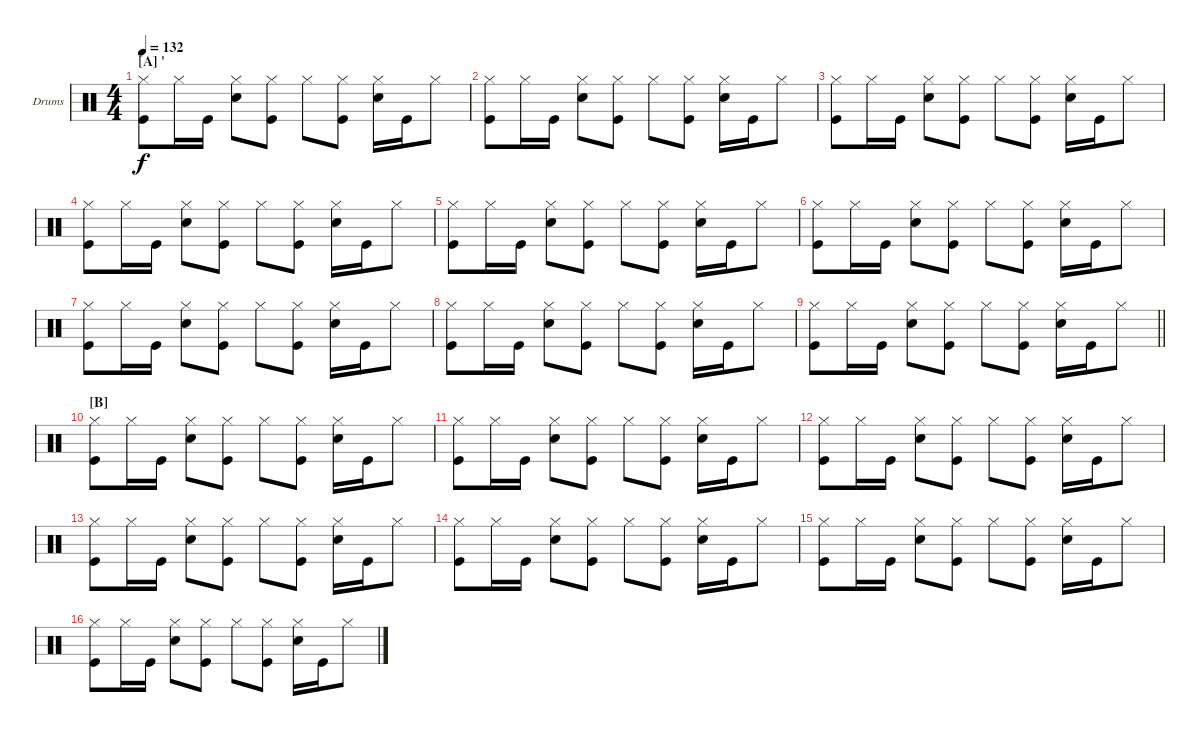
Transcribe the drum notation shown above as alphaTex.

\bracketExtendMode groupsimilarinstruments
\firstSystemTrackNameOrientation horizontal
\otherSystemsTrackNameOrientation horizontal
\track ("Fabrizio Moretti" "Drums") {instrument percussion}
\staff {score}
\articulation defaults
\ts (4 4)
\section ("A" "'")
\tempo 132
\clef neutral
\ks c
("Hi-Hat (closed)" "Kick (hit)").8{dy f} "Hi-Hat (closed)".16 "Kick (hit)".16 ("Hi-Hat (closed)" "Snare (hit) 2").8 ("Hi-Hat (closed)" "Kick (hit)").8 "Hi-Hat (closed)".8 ("Hi-Hat (closed)" "Kick (hit)").8 ("Hi-Hat (closed)" "Snare (hit) 2").16 "Kick (hit)".16 "Hi-Hat (closed)".8 |
("Hi-Hat (closed)" "Kick (hit)").8 "Hi-Hat (closed)".16 "Kick (hit)".16 ("Hi-Hat (closed)" "Snare (hit) 2").8 ("Hi-Hat (closed)" "Kick (hit)").8 "Hi-Hat (closed)".8 ("Hi-Hat (closed)" "Kick (hit)").8 ("Hi-Hat (closed)" "Snare (hit) 2").16 "Kick (hit)".16 "Hi-Hat (closed)".8 |
("Hi-Hat (closed)" "Kick (hit)").8 "Hi-Hat (closed)".16 "Kick (hit)".16 ("Hi-Hat (closed)" "Snare (hit) 2").8 ("Hi-Hat (closed)" "Kick (hit)").8 "Hi-Hat (closed)".8 ("Hi-Hat (closed)" "Kick (hit)").8 ("Hi-Hat (closed)" "Snare (hit) 2").16 "Kick (hit)".16 "Hi-Hat (closed)".8 |
("Hi-Hat (closed)" "Kick (hit)").8 "Hi-Hat (closed)".16 "Kick (hit)".16 ("Hi-Hat (closed)" "Snare (hit) 2").8 ("Hi-Hat (closed)" "Kick (hit)").8 "Hi-Hat (closed)".8 ("Hi-Hat (closed)" "Kick (hit)").8 ("Hi-Hat (closed)" "Snare (hit) 2").16 "Kick (hit)".16 "Hi-Hat (closed)".8 |
("Hi-Hat (closed)" "Kick (hit)").8 "Hi-Hat (closed)".16 "Kick (hit)".16 ("Hi-Hat (closed)" "Snare (hit) 2").8 ("Hi-Hat (closed)" "Kick (hit)").8 "Hi-Hat (closed)".8 ("Hi-Hat (closed)" "Kick (hit)").8 ("Hi-Hat (closed)" "Snare (hit) 2").16 "Kick (hit)".16 "Hi-Hat (closed)".8 |
("Hi-Hat (closed)" "Kick (hit)").8 "Hi-Hat (closed)".16 "Kick (hit)".16 ("Hi-Hat (closed)" "Snare (hit) 2").8 ("Hi-Hat (closed)" "Kick (hit)").8 "Hi-Hat (closed)".8 ("Hi-Hat (closed)" "Kick (hit)").8 ("Hi-Hat (closed)" "Snare (hit) 2").16 "Kick (hit)".16 "Hi-Hat (closed)".8 |
("Hi-Hat (closed)" "Kick (hit)").8 "Hi-Hat (closed)".16 "Kick (hit)".16 ("Hi-Hat (closed)" "Snare (hit) 2").8 ("Hi-Hat (closed)" "Kick (hit)").8 "Hi-Hat (closed)".8 ("Hi-Hat (closed)" "Kick (hit)").8 ("Hi-Hat (closed)" "Snare (hit) 2").16 "Kick (hit)".16 "Hi-Hat (closed)".8 |
("Hi-Hat (closed)" "Kick (hit)").8 "Hi-Hat (closed)".16 "Kick (hit)".16 ("Hi-Hat (closed)" "Snare (hit) 2").8 ("Hi-Hat (closed)" "Kick (hit)").8 "Hi-Hat (closed)".8 ("Hi-Hat (closed)" "Kick (hit)").8 ("Hi-Hat (closed)" "Snare (hit) 2").16 "Kick (hit)".16 "Hi-Hat (closed)".8 |
\barLineRight lightlight
("Hi-Hat (closed)" "Kick (hit)").8 "Hi-Hat (closed)".16 "Kick (hit)".16 ("Hi-Hat (closed)" "Snare (hit) 2").8 ("Hi-Hat (closed)" "Kick (hit)").8 "Hi-Hat (closed)".8 ("Hi-Hat (closed)" "Kick (hit)").8 ("Hi-Hat (closed)" "Snare (hit) 2").16 "Kick (hit)".16 "Hi-Hat (closed)".8 |
\section ("B" "")
("Hi-Hat (closed)" "Kick (hit)").8 "Hi-Hat (closed)".16 "Kick (hit)".16 ("Hi-Hat (closed)" "Snare (hit) 2").8 ("Hi-Hat (closed)" "Kick (hit)").8 "Hi-Hat (closed)".8 ("Hi-Hat (closed)" "Kick (hit)").8 ("Hi-Hat (closed)" "Snare (hit) 2").16 "Kick (hit)".16 "Hi-Hat (closed)".8 |
("Hi-Hat (closed)" "Kick (hit)").8 "Hi-Hat (closed)".16 "Kick (hit)".16 ("Hi-Hat (closed)" "Snare (hit) 2").8 ("Hi-Hat (closed)" "Kick (hit)").8 "Hi-Hat (closed)".8 ("Hi-Hat (closed)" "Kick (hit)").8 ("Hi-Hat (closed)" "Snare (hit) 2").16 "Kick (hit)".16 "Hi-Hat (closed)".8 |
("Hi-Hat (closed)" "Kick (hit)").8 "Hi-Hat (closed)".16 "Kick (hit)".16 ("Hi-Hat (closed)" "Snare (hit) 2").8 ("Hi-Hat (closed)" "Kick (hit)").8 "Hi-Hat (closed)".8 ("Hi-Hat (closed)" "Kick (hit)").8 ("Hi-Hat (closed)" "Snare (hit) 2").16 "Kick (hit)".16 "Hi-Hat (closed)".8 |
("Hi-Hat (closed)" "Kick (hit)").8 "Hi-Hat (closed)".16 "Kick (hit)".16 ("Hi-Hat (closed)" "Snare (hit) 2").8 ("Hi-Hat (closed)" "Kick (hit)").8 "Hi-Hat (closed)".8 ("Hi-Hat (closed)" "Kick (hit)").8 ("Hi-Hat (closed)" "Snare (hit) 2").16 "Kick (hit)".16 "Hi-Hat (closed)".8 |
("Hi-Hat (closed)" "Kick (hit)").8 "Hi-Hat (closed)".16 "Kick (hit)".16 ("Hi-Hat (closed)" "Snare (hit) 2").8 ("Hi-Hat (closed)" "Kick (hit)").8 "Hi-Hat (closed)".8 ("Hi-Hat (closed)" "Kick (hit)").8 ("Hi-Hat (closed)" "Snare (hit) 2").16 "Kick (hit)".16 "Hi-Hat (closed)".8 |
("Hi-Hat (closed)" "Kick (hit)").8 "Hi-Hat (closed)".16 "Kick (hit)".16 ("Hi-Hat (closed)" "Snare (hit) 2").8 ("Hi-Hat (closed)" "Kick (hit)").8 "Hi-Hat (closed)".8 ("Hi-Hat (closed)" "Kick (hit)").8 ("Hi-Hat (closed)" "Snare (hit) 2").16 "Kick (hit)".16 "Hi-Hat (closed)".8 |
("Hi-Hat (closed)" "Kick (hit)").8 "Hi-Hat (closed)".16 "Kick (hit)".16 ("Hi-Hat (closed)" "Snare (hit) 2").8 ("Hi-Hat (closed)" "Kick (hit)").8 "Hi-Hat (closed)".8 ("Hi-Hat (closed)" "Kick (hit)").8 ("Hi-Hat (closed)" "Snare (hit) 2").16 "Kick (hit)".16 "Hi-Hat (closed)".8
